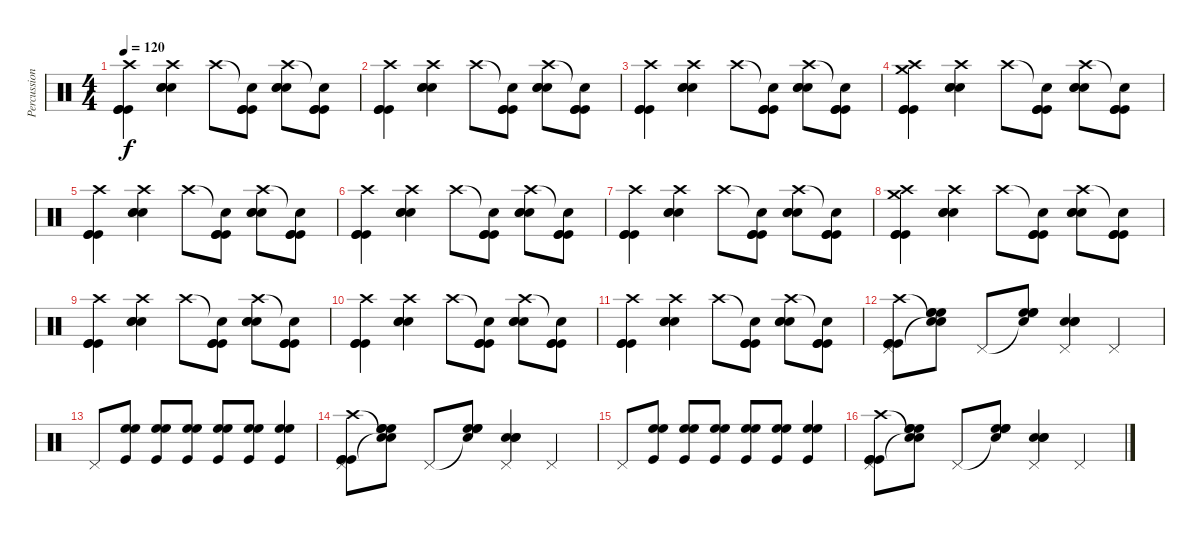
\track ("Percussions" "Percussion") {instrument percussion}
\staff {score}
\articulation defaults
\ts (4 4)
\tempo 120
\clef neutral
\ks c
("Crash high (hit)" "Kick (hit)" "Kick (hit)" "Kick (hit)").4{dy f} ("Crash high (hit)" "Snare (hit) 2" "Snare (hit) 2" "Snare (hit) 2").4 "Crash high (hit)".8 ("Snare (hit)"{t} "Kick (hit)" "Kick (hit)" "Kick (hit)").8 ("Crash high (hit)" "Snare (hit) 2" "Snare (hit) 2" "Snare (hit) 2").8 ("Snare (hit)"{t} "Kick (hit)" "Kick (hit)" "Kick (hit)").8 |
("Crash high (hit)" "Kick (hit)" "Kick (hit)" "Kick (hit)").4 ("Crash high (hit)" "Snare (hit) 2" "Snare (hit) 2" "Snare (hit) 2").4 "Crash high (hit)".8 ("Snare (hit)"{t} "Kick (hit)" "Kick (hit)" "Kick (hit)").8 ("Crash high (hit)" "Snare (hit) 2" "Snare (hit) 2" "Snare (hit) 2").8 ("Snare (hit)"{t} "Kick (hit)" "Kick (hit)" "Kick (hit)").8 |
("Crash high (hit)" "Kick (hit)" "Kick (hit)" "Kick (hit)").4 ("Crash high (hit)" "Snare (hit) 2" "Snare (hit) 2" "Snare (hit) 2").4 "Crash high (hit)".8 ("Snare (hit)"{t} "Kick (hit)" "Kick (hit)" "Kick (hit)").8 ("Crash high (hit)" "Snare (hit) 2" "Snare (hit) 2" "Snare (hit) 2").8 ("Snare (hit)"{t} "Kick (hit)" "Kick (hit)" "Kick (hit)").8 |
("Crash high (hit)" "Crash medium (hit)" "Kick (hit)" "Kick (hit)" "Kick (hit)").4 ("Crash high (hit)" "Snare (hit) 2" "Snare (hit) 2" "Snare (hit) 2").4 "Crash high (hit)".8 ("Snare (hit)"{t} "Kick (hit)" "Kick (hit)" "Kick (hit)").8 ("Crash high (hit)" "Snare (hit) 2" "Snare (hit) 2" "Snare (hit) 2").8 ("Snare (hit)"{t} "Kick (hit)" "Kick (hit)" "Kick (hit)").8 |
("Crash high (hit)" "Kick (hit)" "Kick (hit)" "Kick (hit)").4 ("Crash high (hit)" "Snare (hit) 2" "Snare (hit) 2" "Snare (hit) 2").4 "Crash high (hit)".8 ("Snare (hit)"{t} "Kick (hit)" "Kick (hit)" "Kick (hit)").8 ("Crash high (hit)" "Snare (hit) 2" "Snare (hit) 2" "Snare (hit) 2").8 ("Snare (hit)"{t} "Kick (hit)" "Kick (hit)" "Kick (hit)").8 |
("Crash high (hit)" "Kick (hit)" "Kick (hit)" "Kick (hit)").4 ("Crash high (hit)" "Snare (hit) 2" "Snare (hit) 2" "Snare (hit) 2").4 "Crash high (hit)".8 ("Snare (hit)"{t} "Kick (hit)" "Kick (hit)" "Kick (hit)").8 ("Crash high (hit)" "Snare (hit) 2" "Snare (hit) 2" "Snare (hit) 2").8 ("Snare (hit)"{t} "Kick (hit)" "Kick (hit)" "Kick (hit)").8 |
("Crash high (hit)" "Kick (hit)" "Kick (hit)" "Kick (hit)").4 ("Crash high (hit)" "Snare (hit) 2" "Snare (hit) 2" "Snare (hit) 2").4 "Crash high (hit)".8 ("Snare (hit)"{t} "Kick (hit)" "Kick (hit)" "Kick (hit)").8 ("Crash high (hit)" "Snare (hit) 2" "Snare (hit) 2" "Snare (hit) 2").8 ("Snare (hit)"{t} "Kick (hit)" "Kick (hit)" "Kick (hit)").8 |
("Crash high (hit)" "Crash medium (hit)" "Kick (hit)" "Kick (hit)" "Kick (hit)").4 ("Crash high (hit)" "Snare (hit) 2" "Snare (hit) 2" "Snare (hit) 2").4 "Crash high (hit)".8 ("Snare (hit)"{t} "Kick (hit)" "Kick (hit)" "Kick (hit)").8 ("Crash high (hit)" "Snare (hit) 2" "Snare (hit) 2" "Snare (hit) 2").8 ("Snare (hit)"{t} "Kick (hit)" "Kick (hit)" "Kick (hit)").8 |
("Crash high (hit)" "Kick (hit)" "Kick (hit)" "Kick (hit)").4 ("Crash high (hit)" "Snare (hit) 2" "Snare (hit) 2" "Snare (hit) 2").4 "Crash high (hit)".8 ("Snare (hit)"{t} "Kick (hit)" "Kick (hit)" "Kick (hit)").8 ("Crash high (hit)" "Snare (hit) 2" "Snare (hit) 2" "Snare (hit) 2").8 ("Snare (hit)"{t} "Kick (hit)" "Kick (hit)" "Kick (hit)").8 |
("Crash high (hit)" "Kick (hit)" "Kick (hit)" "Kick (hit)").4 ("Crash high (hit)" "Snare (hit) 2" "Snare (hit) 2" "Snare (hit) 2").4 "Crash high (hit)".8 ("Snare (hit)"{t} "Kick (hit)" "Kick (hit)" "Kick (hit)").8 ("Crash high (hit)" "Snare (hit) 2" "Snare (hit) 2" "Snare (hit) 2").8 ("Snare (hit)"{t} "Kick (hit)" "Kick (hit)" "Kick (hit)").8 |
("Crash high (hit)" "Kick (hit)" "Kick (hit)" "Kick (hit)").4 ("Crash high (hit)" "Snare (hit) 2" "Snare (hit) 2" "Snare (hit) 2").4 "Crash high (hit)".8 ("Snare (hit)"{t} "Kick (hit)" "Kick (hit)" "Kick (hit)").8 ("Crash high (hit)" "Snare (hit) 2" "Snare (hit) 2" "Snare (hit) 2").8 ("Snare (hit)"{t} "Kick (hit)" "Kick (hit)" "Kick (hit)").8 |
("Pedal Hi-Hat (hit)" "Crash high (hit)" "Kick (hit)" "Kick (hit)" "Kick (hit)").8 ("Snare (hit)"{t} "Snare (hit)"{t} "High Floor Tom (hit)" "High Floor Tom (hit)" "High Floor Tom (hit)").8 "Pedal Hi-Hat (hit)".8 ("Snare (hit)"{t} "High Floor Tom (hit)" "High Floor Tom (hit)" "High Floor Tom (hit)").8 ("Pedal Hi-Hat (hit)" "Snare (hit) 2" "Snare (hit) 2" "Snare (hit) 2").4 "Pedal Hi-Hat (hit)".4 |
"Pedal Hi-Hat (hit)".8 ("High Floor Tom (hit)" "High Floor Tom (hit)" "Kick (hit)").8 ("High Floor Tom (hit)" "High Floor Tom (hit)" "Kick (hit)").8 ("High Floor Tom (hit)" "High Floor Tom (hit)" "Kick (hit)").8 ("High Floor Tom (hit)" "High Floor Tom (hit)" "Kick (hit)").8 ("High Floor Tom (hit)" "High Floor Tom (hit)" "Kick (hit)").8 ("High Floor Tom (hit)" "High Floor Tom (hit)" "Kick (hit)").4 |
("Pedal Hi-Hat (hit)" "Crash high (hit)" "Kick (hit)" "Kick (hit)" "Kick (hit)").8 ("Snare (hit)"{t} "Snare (hit)"{t} "High Floor Tom (hit)" "High Floor Tom (hit)" "High Floor Tom (hit)").8 "Pedal Hi-Hat (hit)".8 ("Snare (hit)"{t} "High Floor Tom (hit)" "High Floor Tom (hit)" "High Floor Tom (hit)").8 ("Pedal Hi-Hat (hit)" "Snare (hit) 2" "Snare (hit) 2" "Snare (hit) 2").4 "Pedal Hi-Hat (hit)".4 |
"Pedal Hi-Hat (hit)".8 ("High Floor Tom (hit)" "High Floor Tom (hit)" "Kick (hit)").8 ("High Floor Tom (hit)" "High Floor Tom (hit)" "Kick (hit)").8 ("High Floor Tom (hit)" "High Floor Tom (hit)" "Kick (hit)").8 ("High Floor Tom (hit)" "High Floor Tom (hit)" "Kick (hit)").8 ("High Floor Tom (hit)" "High Floor Tom (hit)" "Kick (hit)").8 ("High Floor Tom (hit)" "High Floor Tom (hit)" "Kick (hit)").4 |
("Pedal Hi-Hat (hit)" "Crash high (hit)" "Kick (hit)" "Kick (hit)" "Kick (hit)").8 ("Snare (hit)"{t} "Snare (hit)"{t} "High Floor Tom (hit)" "High Floor Tom (hit)" "High Floor Tom (hit)").8 "Pedal Hi-Hat (hit)".8 ("Snare (hit)"{t} "High Floor Tom (hit)" "High Floor Tom (hit)" "High Floor Tom (hit)").8 ("Pedal Hi-Hat (hit)" "Snare (hit) 2" "Snare (hit) 2" "Snare (hit) 2").4 "Pedal Hi-Hat (hit)".4
